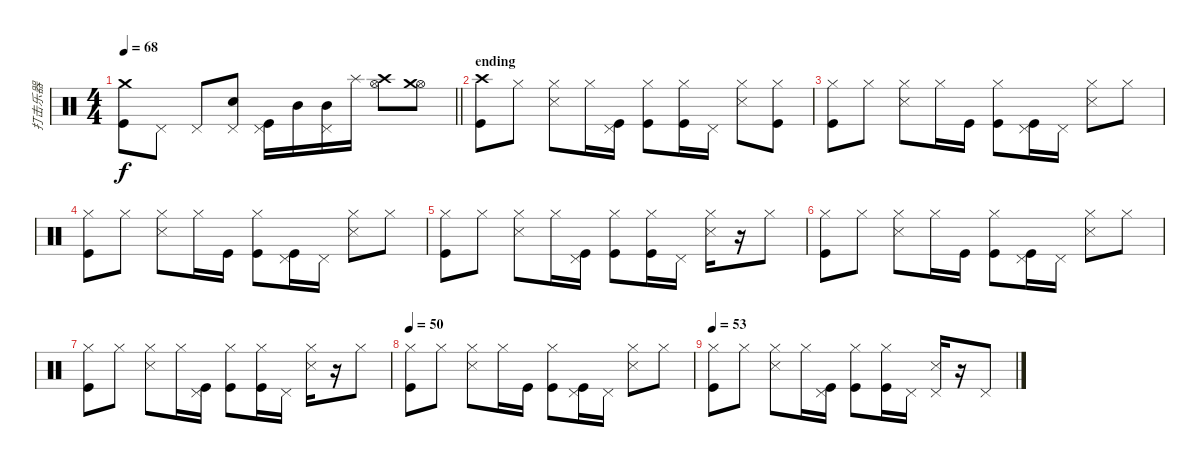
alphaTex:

\track ("打击乐器" "打击乐器") {instrument percussion}
\staff {score}
\articulation defaults
\ts (4 4)
\tempo 68
\clef neutral
\barLineRight lightlight
\ks c
("Crash medium (hit)" "Kick (hit)").8{dy f} "Pedal Hi-Hat (hit)".8 "Pedal Hi-Hat (hit)".8 ("Pedal Hi-Hat (hit)" "Snare (hit) 2").8 ("Pedal Hi-Hat (hit)" "Kick (hit)").16 "Mid Tom (hit)".16 ("Pedal Hi-Hat (hit)" "Mid Tom (hit)").16 "Splash (hit)".16 ("Hi-Hat (open)" "Crash high (hit)").8 ("Hi-Hat (open)" "Crash medium (hit)").8 |
\section ("" "ending")
("Kick (hit)" "Crash high (hit)").8 "Hi-Hat (closed)".8 ("Snare (side stick) 3" "Hi-Hat (closed)").8 "Hi-Hat (closed)".16 ("Pedal Hi-Hat (hit)" "Kick (hit)").16 ("Hi-Hat (closed)" "Kick (hit)").8 ("Hi-Hat (closed)" "Kick (hit)").16 "Pedal Hi-Hat (hit)".16 ("Snare (side stick) 3" "Hi-Hat (closed)").8 ("Kick (hit)" "Hi-Hat (closed)").8 |
("Kick (hit)" "Hi-Hat (closed)").8 "Hi-Hat (closed)".8 ("Snare (side stick) 3" "Hi-Hat (closed)").8 "Hi-Hat (closed)".16 "Kick (hit)".16 ("Hi-Hat (closed)" "Kick (hit)").8 ("Pedal Hi-Hat (hit)" "Kick (hit)").16 "Pedal Hi-Hat (hit)".16 ("Snare (side stick) 3" "Hi-Hat (closed)").8 "Hi-Hat (closed)".8 |
("Kick (hit)" "Hi-Hat (closed)").8 "Hi-Hat (closed)".8 ("Snare (side stick) 3" "Hi-Hat (closed)").8 "Hi-Hat (closed)".16 "Kick (hit)".16 ("Hi-Hat (closed)" "Kick (hit)").8 ("Pedal Hi-Hat (hit)" "Kick (hit)").16 "Pedal Hi-Hat (hit)".16 ("Snare (side stick) 3" "Hi-Hat (closed)").8 "Hi-Hat (closed)".8 |
("Kick (hit)" "Hi-Hat (closed)").8 "Hi-Hat (closed)".8 ("Snare (side stick) 3" "Hi-Hat (closed)").8 "Hi-Hat (closed)".16 ("Pedal Hi-Hat (hit)" "Kick (hit)").16 ("Hi-Hat (closed)" "Kick (hit)").8 ("Hi-Hat (closed)" "Kick (hit)").16 "Pedal Hi-Hat (hit)".16 ("Snare (side stick) 3" "Hi-Hat (closed)").16 r.16 "Hi-Hat (closed)".8 |
("Kick (hit)" "Hi-Hat (closed)").8 "Hi-Hat (closed)".8 ("Snare (side stick) 3" "Hi-Hat (closed)").8 "Hi-Hat (closed)".16 "Kick (hit)".16 ("Hi-Hat (closed)" "Kick (hit)").8 ("Pedal Hi-Hat (hit)" "Kick (hit)").16 "Pedal Hi-Hat (hit)".16 ("Snare (side stick) 3" "Hi-Hat (closed)").8 "Hi-Hat (closed)".8 |
("Kick (hit)" "Hi-Hat (closed)").8 "Hi-Hat (closed)".8 ("Snare (side stick) 3" "Hi-Hat (closed)").8 "Hi-Hat (closed)".16 ("Pedal Hi-Hat (hit)" "Kick (hit)").16 ("Hi-Hat (closed)" "Kick (hit)").8 ("Hi-Hat (closed)" "Kick (hit)").16 "Pedal Hi-Hat (hit)".16 ("Snare (side stick) 3" "Hi-Hat (closed)").16 r.16 "Hi-Hat (closed)".8 |
\tempo 50
("Kick (hit)" "Hi-Hat (closed)").8 "Hi-Hat (closed)".8 ("Snare (side stick) 3" "Hi-Hat (closed)").8 "Hi-Hat (closed)".16 "Kick (hit)".16 ("Hi-Hat (closed)" "Kick (hit)").8 ("Pedal Hi-Hat (hit)" "Kick (hit)").16 "Pedal Hi-Hat (hit)".16 ("Snare (side stick) 3" "Hi-Hat (closed)").8 "Hi-Hat (closed)".8 |
\tempo 53
("Kick (hit)" "Hi-Hat (closed)").8 "Hi-Hat (closed)".8 ("Snare (side stick) 3" "Hi-Hat (closed)").8 "Hi-Hat (closed)".16 ("Pedal Hi-Hat (hit)" "Kick (hit)").16 ("Hi-Hat (closed)" "Kick (hit)").8 ("Hi-Hat (closed)" "Kick (hit)").16 "Pedal Hi-Hat (hit)".16 ("Snare (side stick) 3" "Pedal Hi-Hat (hit)").16 r.16 "Pedal Hi-Hat (hit)".8
